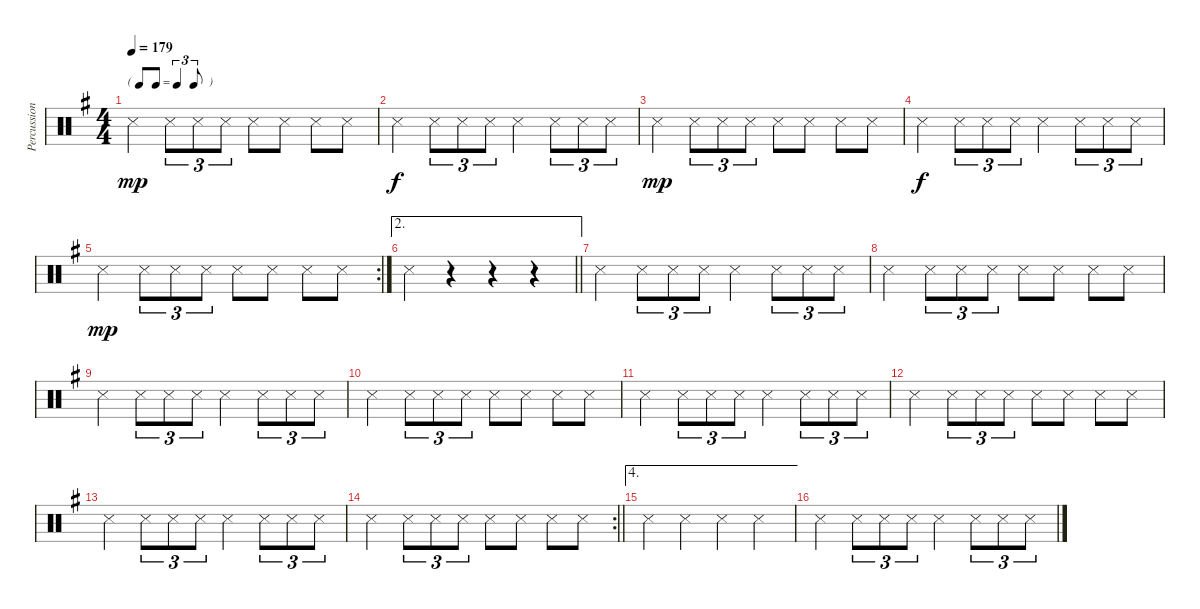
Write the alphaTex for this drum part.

\track ("Percussion" "Percussion") {instrument percussion}
\staff {score}
\articulation defaults
\ts (4 4)
\tf triplet8th
\tempo 179
\clef neutral
\ks g "Snare (side stick) 3".4{dy mp} "Snare (side stick) 3".8{tu (3 2)} "Snare (side stick) 3".8{tu (3 2)} "Snare (side stick) 3".8{tu (3 2)} "Snare (side stick) 3".8 "Snare (side stick) 3".8 "Snare (side stick) 3".8 "Snare (side stick) 3".8
|
"Snare (side stick) 3".4{dy f} "Snare (side stick) 3".8{tu (3 2)} "Snare (side stick) 3".8{tu (3 2)} "Snare (side stick) 3".8{tu (3 2)} "Snare (side stick) 3".4 "Snare (side stick) 3".8{tu (3 2)} "Snare (side stick) 3".8{tu (3 2)} "Snare (side stick) 3".8{tu (3 2)} |
"Snare (side stick) 3".4{dy mp} "Snare (side stick) 3".8{tu (3 2)} "Snare (side stick) 3".8{tu (3 2)} "Snare (side stick) 3".8{tu (3 2)} "Snare (side stick) 3".8 "Snare (side stick) 3".8 "Snare (side stick) 3".8 "Snare (side stick) 3".8 |
"Snare (side stick) 3".4{dy f} "Snare (side stick) 3".8{tu (3 2)} "Snare (side stick) 3".8{tu (3 2)} "Snare (side stick) 3".8{tu (3 2)} "Snare (side stick) 3".4 "Snare (side stick) 3".8{tu (3 2)} "Snare (side stick) 3".8{tu (3 2)} "Snare (side stick) 3".8{tu (3 2)} |
\rc 2 "Snare (side stick) 3".4{dy mp} "Snare (side stick) 3".8{tu (3 2)} "Snare (side stick) 3".8{tu (3 2)} "Snare (side stick) 3".8{tu (3 2)} "Snare (side stick) 3".8 "Snare (side stick) 3".8 "Snare (side stick) 3".8 "Snare (side stick) 3".8
|
\ae 2
\barLineRight lightlight "Snare (side stick) 3".4
r.4 r.4 r.4 |
"Snare (side stick) 3".4 "Snare (side stick) 3".8{tu (3 2)} "Snare (side stick) 3".8{tu (3 2)} "Snare (side stick) 3".8{tu (3 2)} "Snare (side stick) 3".4 "Snare (side stick) 3".8{tu (3 2)} "Snare (side stick) 3".8{tu (3 2)} "Snare (side stick) 3".8{tu (3 2)} |
"Snare (side stick) 3".4 "Snare (side stick) 3".8{tu (3 2)} "Snare (side stick) 3".8{tu (3 2)} "Snare (side stick) 3".8{tu (3 2)} "Snare (side stick) 3".8 "Snare (side stick) 3".8 "Snare (side stick) 3".8 "Snare (side stick) 3".8 |
"Snare (side stick) 3".4 "Snare (side stick) 3".8{tu (3 2)} "Snare (side stick) 3".8{tu (3 2)} "Snare (side stick) 3".8{tu (3 2)} "Snare (side stick) 3".4 "Snare (side stick) 3".8{tu (3 2)} "Snare (side stick) 3".8{tu (3 2)} "Snare (side stick) 3".8{tu (3 2)} |
"Snare (side stick) 3".4 "Snare (side stick) 3".8{tu (3 2)} "Snare (side stick) 3".8{tu (3 2)} "Snare (side stick) 3".8{tu (3 2)} "Snare (side stick) 3".8 "Snare (side stick) 3".8 "Snare (side stick) 3".8 "Snare (side stick) 3".8 |
"Snare (side stick) 3".4 "Snare (side stick) 3".8{tu (3 2)} "Snare (side stick) 3".8{tu (3 2)} "Snare (side stick) 3".8{tu (3 2)} "Snare (side stick) 3".4 "Snare (side stick) 3".8{tu (3 2)} "Snare (side stick) 3".8{tu (3 2)} "Snare (side stick) 3".8{tu (3 2)} |
"Snare (side stick) 3".4 "Snare (side stick) 3".8{tu (3 2)} "Snare (side stick) 3".8{tu (3 2)} "Snare (side stick) 3".8{tu (3 2)} "Snare (side stick) 3".8 "Snare (side stick) 3".8 "Snare (side stick) 3".8 "Snare (side stick) 3".8 |
"Snare (side stick) 3".4 "Snare (side stick) 3".8{tu (3 2)} "Snare (side stick) 3".8{tu (3 2)} "Snare (side stick) 3".8{tu (3 2)} "Snare (side stick) 3".4 "Snare (side stick) 3".8{tu (3 2)} "Snare (side stick) 3".8{tu (3 2)} "Snare (side stick) 3".8{tu (3 2)} |
\rc 2
\barLineRight lightlight "Snare (side stick) 3".4 "Snare (side stick) 3".8{tu (3 2)} "Snare (side stick) 3".8{tu (3 2)} "Snare (side stick) 3".8{tu (3 2)} "Snare (side stick) 3".8 "Snare (side stick) 3".8 "Snare (side stick) 3".8 "Snare (side stick) 3".8
|
\ae 4 "Snare (side stick) 3".4 "Snare (side stick) 3".4 "Snare (side stick) 3".4 "Snare (side stick) 3".4
|
"Snare (side stick) 3".4 "Snare (side stick) 3".8{tu (3 2)} "Snare (side stick) 3".8{tu (3 2)} "Snare (side stick) 3".8{tu (3 2)} "Snare (side stick) 3".4 "Snare (side stick) 3".8{tu (3 2)} "Snare (side stick) 3".8{tu (3 2)} "Snare (side stick) 3".8{tu (3 2)}
